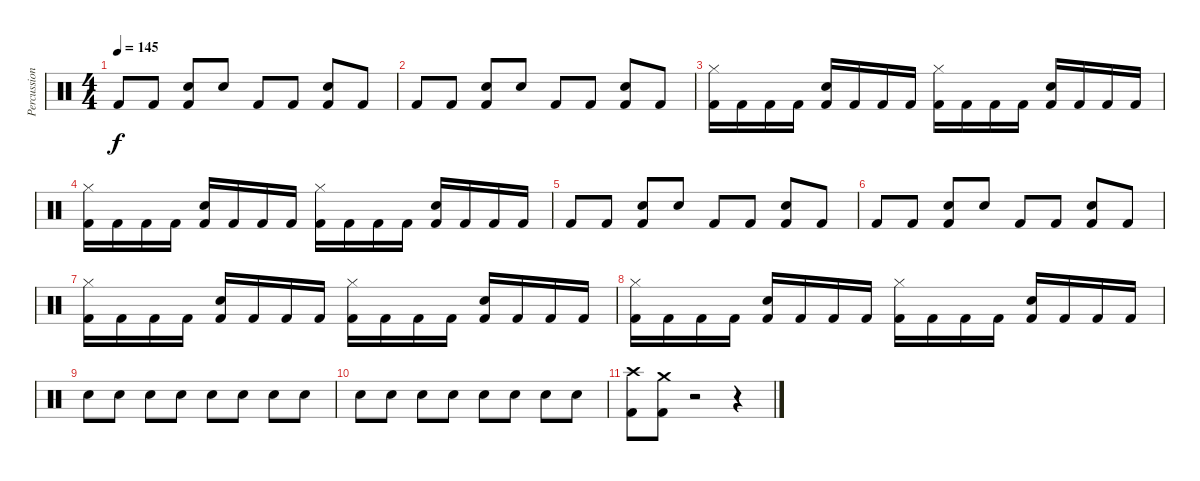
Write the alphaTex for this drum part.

\track ("Percussion" "Percussion") {instrument percussion}
\staff {score}
\articulation defaults
\ts (4 4)
\tempo 145
\clef neutral
\ks c "Kick (hit) 2".8{dy f} "Kick (hit) 2".8
("Kick (hit) 2" "Snare (hit) 2").8 "Snare (hit) 2".8 "Kick (hit) 2".8 "Kick (hit) 2".8 ("Kick (hit) 2" "Snare (hit) 2").8 "Kick (hit) 2".8 |
"Kick (hit) 2".8 "Kick (hit) 2".8 ("Kick (hit) 2" "Snare (hit) 2").8 "Snare (hit) 2".8 "Kick (hit) 2".8 "Kick (hit) 2".8 ("Kick (hit) 2" "Snare (hit) 2").8 "Kick (hit) 2".8 |
("Kick (hit) 2" "Hi-Hat (closed)").16 "Kick (hit) 2".16 "Kick (hit) 2".16 "Kick (hit) 2".16 ("Kick (hit) 2" "Snare (hit) 2").16 "Kick (hit) 2".16 "Kick (hit) 2".16 "Kick (hit) 2".16 ("Kick (hit) 2" "Hi-Hat (closed)").16 "Kick (hit) 2".16 "Kick (hit) 2".16 "Kick (hit) 2".16 ("Kick (hit) 2" "Snare (hit) 2").16 "Kick (hit) 2".16 "Kick (hit) 2".16 "Kick (hit) 2".16 |
("Kick (hit) 2" "Hi-Hat (closed)").16 "Kick (hit) 2".16 "Kick (hit) 2".16 "Kick (hit) 2".16 ("Kick (hit) 2" "Snare (hit) 2").16 "Kick (hit) 2".16 "Kick (hit) 2".16 "Kick (hit) 2".16 ("Kick (hit) 2" "Hi-Hat (closed)").16 "Kick (hit) 2".16 "Kick (hit) 2".16 "Kick (hit) 2".16 ("Kick (hit) 2" "Snare (hit) 2").16 "Kick (hit) 2".16 "Kick (hit) 2".16 "Kick (hit) 2".16 |
"Kick (hit) 2".8 "Kick (hit) 2".8 ("Kick (hit) 2" "Snare (hit) 2").8 "Snare (hit) 2".8 "Kick (hit) 2".8 "Kick (hit) 2".8 ("Kick (hit) 2" "Snare (hit) 2").8 "Kick (hit) 2".8 |
"Kick (hit) 2".8 "Kick (hit) 2".8 ("Kick (hit) 2" "Snare (hit) 2").8 "Snare (hit) 2".8 "Kick (hit) 2".8 "Kick (hit) 2".8 ("Kick (hit) 2" "Snare (hit) 2").8 "Kick (hit) 2".8 |
("Kick (hit) 2" "Hi-Hat (closed)").16 "Kick (hit) 2".16 "Kick (hit) 2".16 "Kick (hit) 2".16 ("Kick (hit) 2" "Snare (hit) 2").16 "Kick (hit) 2".16 "Kick (hit) 2".16 "Kick (hit) 2".16 ("Kick (hit) 2" "Hi-Hat (closed)").16 "Kick (hit) 2".16 "Kick (hit) 2".16 "Kick (hit) 2".16 ("Kick (hit) 2" "Snare (hit) 2").16 "Kick (hit) 2".16 "Kick (hit) 2".16 "Kick (hit) 2".16 |
("Kick (hit) 2" "Hi-Hat (closed)").16 "Kick (hit) 2".16 "Kick (hit) 2".16 "Kick (hit) 2".16 ("Kick (hit) 2" "Snare (hit) 2").16 "Kick (hit) 2".16 "Kick (hit) 2".16 "Kick (hit) 2".16 ("Kick (hit) 2" "Hi-Hat (closed)").16 "Kick (hit) 2".16 "Kick (hit) 2".16 "Kick (hit) 2".16 ("Kick (hit) 2" "Snare (hit) 2").16 "Kick (hit) 2".16 "Kick (hit) 2".16 "Kick (hit) 2".16 |
"Snare (hit) 2".8 "Snare (hit) 2".8 "Snare (hit) 2".8 "Snare (hit) 2".8 "Snare (hit) 2".8 "Snare (hit) 2".8 "Snare (hit) 2".8 "Snare (hit) 2".8 |
"Snare (hit) 2".8 "Snare (hit) 2".8 "Snare (hit) 2".8 "Snare (hit) 2".8 "Snare (hit) 2".8 "Snare (hit) 2".8 "Snare (hit) 2".8 "Snare (hit) 2".8 |
("Kick (hit) 2" "Crash high (hit)").8 ("Kick (hit) 2" "Crash medium (hit)").8 r.2 r.4
